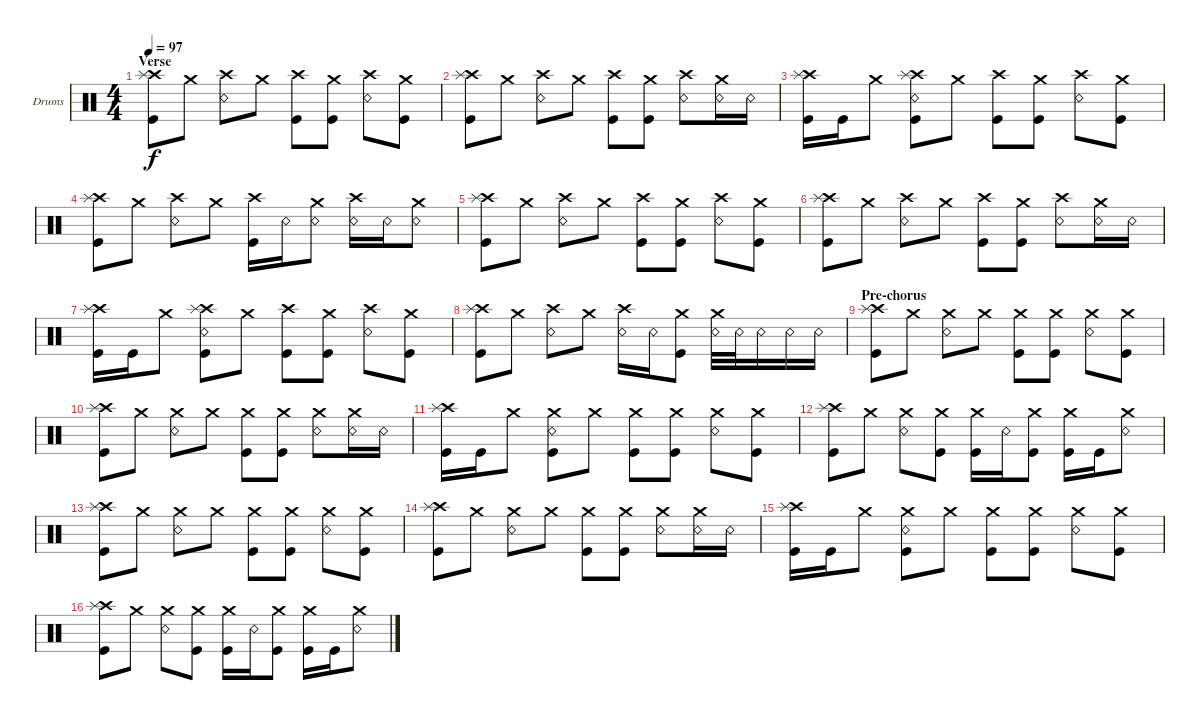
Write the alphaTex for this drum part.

\bracketExtendMode groupsimilarinstruments
\firstSystemTrackNameOrientation horizontal
\otherSystemsTrackNameOrientation horizontal
\track ("Drumkit" "Drums") {instrument percussion}
\staff {score}
\articulation defaults
\ts (4 4)
\section ("" "Verse")
\tempo 97
\clef neutral
\scale
0.333333
\ks c
("Kick (hit)" "Crash high (hit)" "Splash (hit)").8{dy f} "Crash medium (hit)".8 ("Crash high (hit)" "Snare (rim shot)").8 "Crash medium (hit)".8 ("Kick (hit)" "Crash high (hit)").8 ("Kick (hit)" "Crash medium (hit)").8 ("Snare (rim shot)" "Crash high (hit)").8 ("Kick (hit)" "Crash medium (hit)").8 |
\scale
0.333333 ("Kick (hit)" "Crash high (hit)" "Splash (hit)").8 "Crash medium (hit)".8 ("Crash high (hit)" "Snare (rim shot)").8 "Crash medium (hit)".8 ("Kick (hit)" "Crash high (hit)").8 ("Kick (hit)" "Crash medium (hit)").8 ("Snare (rim shot)" "Crash high (hit)").8 ("Snare (rim shot)" "Crash medium (hit)").16 "Snare (rim shot)".16 |
\scale
0.333333 ("Kick (hit)" "Crash high (hit)" "Splash (hit)").16 "Kick (hit)".16 "Crash medium (hit)".8 ("Kick (hit)" "Crash high (hit)" "Splash (hit)" "Snare (rim shot)").8 "Crash medium (hit)".8 ("Kick (hit)" "Crash high (hit)").8 ("Kick (hit)" "Crash medium (hit)").8 ("Snare (rim shot)" "Crash high (hit)").8 ("Kick (hit)" "Crash medium (hit)").8 |
\scale
0.333333 ("Kick (hit)" "Crash high (hit)" "Splash (hit)").8 "Crash medium (hit)".8 ("Crash high (hit)" "Snare (rim shot)").8 "Crash medium (hit)".8 ("Kick (hit)" "Crash high (hit)").16 "Snare (rim shot)".16 ("Crash medium (hit)" "Snare (rim shot)").8 ("Crash high (hit)" "Snare (rim shot)").16 "Snare (rim shot)".16 ("Snare (rim shot)" "Crash medium (hit)").8 |
\scale
0.333333 ("Kick (hit)" "Crash high (hit)" "Splash (hit)").8 "Crash medium (hit)".8 ("Crash high (hit)" "Snare (rim shot)").8 "Crash medium (hit)".8 ("Kick (hit)" "Crash high (hit)").8 ("Kick (hit)" "Crash medium (hit)").8 ("Snare (rim shot)" "Crash high (hit)").8 ("Kick (hit)" "Crash medium (hit)").8 |
\scale
0.333333 ("Kick (hit)" "Crash high (hit)" "Splash (hit)").8 "Crash medium (hit)".8 ("Crash high (hit)" "Snare (rim shot)").8 "Crash medium (hit)".8 ("Kick (hit)" "Crash high (hit)").8 ("Kick (hit)" "Crash medium (hit)").8 ("Snare (rim shot)" "Crash high (hit)").8 ("Snare (rim shot)" "Crash medium (hit)").16 "Snare (rim shot)".16 |
\scale
0.333333 ("Kick (hit)" "Crash high (hit)" "Splash (hit)").16 "Kick (hit)".16 "Crash medium (hit)".8 ("Kick (hit)" "Crash high (hit)" "Splash (hit)" "Snare (rim shot)").8 "Crash medium (hit)".8 ("Kick (hit)" "Crash high (hit)").8 ("Kick (hit)" "Crash medium (hit)").8 ("Snare (rim shot)" "Crash high (hit)").8 ("Kick (hit)" "Crash medium (hit)").8 |
\scale
0.333333 ("Kick (hit)" "Crash high (hit)" "Splash (hit)").8 "Crash medium (hit)".8 ("Crash high (hit)" "Snare (rim shot)").8 "Crash medium (hit)".8 ("Crash high (hit)" "Snare (rim shot)").16 "Snare (rim shot)".16 ("Kick (hit)" "Crash medium (hit)").8 ("Snare (rim shot)" "Crash medium (hit)").32 "Snare (rim shot)".32 "Snare (rim shot)".16 "Snare (rim shot)".16 "Snare (rim shot)".16 |
\section ("" "Pre-chorus")
\scale
0.333333 ("Kick (hit)" "Crash high (hit)" "Splash (hit)").8 "Crash medium (hit)".8 ("Snare (rim shot)" "Crash medium (hit)").8 "Crash medium (hit)".8 ("Kick (hit)" "Crash medium (hit)").8 ("Kick (hit)" "Crash medium (hit)").8 ("Snare (rim shot)" "Crash medium (hit)").8 ("Kick (hit)" "Crash medium (hit)").8 |
\scale
0.333333 ("Kick (hit)" "Crash high (hit)" "Splash (hit)").8 "Crash medium (hit)".8 ("Snare (rim shot)" "Crash medium (hit)").8 "Crash medium (hit)".8 ("Kick (hit)" "Crash medium (hit)").8 ("Kick (hit)" "Crash medium (hit)").8 ("Snare (rim shot)" "Crash medium (hit)").8 ("Snare (rim shot)" "Crash medium (hit)").16 "Snare (rim shot)".16 |
\scale
0.333333 ("Kick (hit)" "Crash high (hit)" "Splash (hit)").16 "Kick (hit)".16 "Crash medium (hit)".8 ("Kick (hit)" "Snare (rim shot)" "Crash medium (hit)").8 "Crash medium (hit)".8 ("Kick (hit)" "Crash medium (hit)").8 ("Kick (hit)" "Crash medium (hit)").8 ("Snare (rim shot)" "Crash medium (hit)").8 ("Kick (hit)" "Crash medium (hit)").8 |
\scale
0.333333 ("Kick (hit)" "Crash high (hit)" "Splash (hit)").8 "Crash medium (hit)".8 ("Snare (rim shot)" "Crash medium (hit)").8 ("Kick (hit)" "Crash medium (hit)").8 ("Kick (hit)" "Crash medium (hit)").16 "Snare (rim shot)".16 ("Kick (hit)" "Crash medium (hit)").8 ("Kick (hit)" "Crash medium (hit)").16 "Kick (hit)".16 ("Snare (rim shot)" "Crash medium (hit)").8 |
\scale
0.333333 ("Kick (hit)" "Crash high (hit)" "Splash (hit)").8 "Crash medium (hit)".8 ("Snare (rim shot)" "Crash medium (hit)").8 "Crash medium (hit)".8 ("Kick (hit)" "Crash medium (hit)").8 ("Kick (hit)" "Crash medium (hit)").8 ("Snare (rim shot)" "Crash medium (hit)").8 ("Kick (hit)" "Crash medium (hit)").8 |
\scale
0.333333 ("Kick (hit)" "Crash high (hit)" "Splash (hit)").8 "Crash medium (hit)".8 ("Snare (rim shot)" "Crash medium (hit)").8 "Crash medium (hit)".8 ("Kick (hit)" "Crash medium (hit)").8 ("Kick (hit)" "Crash medium (hit)").8 ("Snare (rim shot)" "Crash medium (hit)").8 ("Snare (rim shot)" "Crash medium (hit)").16 "Snare (rim shot)".16 |
\scale
0.333333 ("Kick (hit)" "Crash high (hit)" "Splash (hit)").16 "Kick (hit)".16 "Crash medium (hit)".8 ("Kick (hit)" "Snare (rim shot)" "Crash medium (hit)").8 "Crash medium (hit)".8 ("Kick (hit)" "Crash medium (hit)").8 ("Kick (hit)" "Crash medium (hit)").8 ("Snare (rim shot)" "Crash medium (hit)").8 ("Kick (hit)" "Crash medium (hit)").8 |
\scale
0.333333 ("Kick (hit)" "Crash high (hit)" "Splash (hit)").8 "Crash medium (hit)".8 ("Snare (rim shot)" "Crash medium (hit)").8 ("Kick (hit)" "Crash medium (hit)").8 ("Kick (hit)" "Crash medium (hit)").16 "Snare (rim shot)".16 ("Kick (hit)" "Crash medium (hit)").8 ("Kick (hit)" "Crash medium (hit)").16 "Kick (hit)".16 ("Snare (rim shot)" "Crash medium (hit)").8
